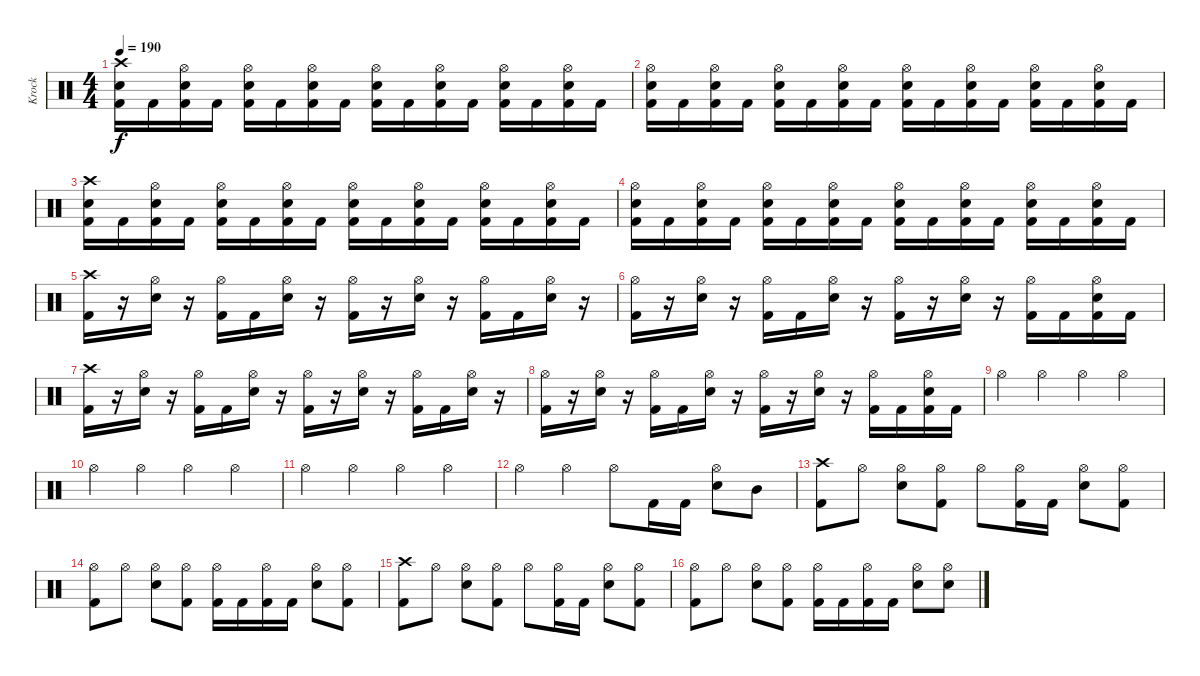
\track ("Krock" "Krock") {instrument percussion}
\staff {score}
\articulation defaults
\ts (4 4)
\tempo 190
\clef neutral
\ks c
("Crash high (hit)" "Electric Snare (hit)" "Kick (hit) 2").16{dy f} "Kick (hit) 2".16 ("Hi-Hat (open)" "Electric Snare (hit)" "Kick (hit) 2").16 "Kick (hit) 2".16 ("Hi-Hat (open)" "Electric Snare (hit)" "Kick (hit) 2").16 "Kick (hit) 2".16 ("Hi-Hat (open)" "Electric Snare (hit)" "Kick (hit) 2").16 "Kick (hit) 2".16 ("Hi-Hat (open)" "Electric Snare (hit)" "Kick (hit) 2").16 "Kick (hit) 2".16 ("Hi-Hat (open)" "Electric Snare (hit)" "Kick (hit) 2").16 "Kick (hit) 2".16 ("Hi-Hat (open)" "Electric Snare (hit)" "Kick (hit) 2").16 "Kick (hit) 2".16 ("Hi-Hat (open)" "Electric Snare (hit)" "Kick (hit) 2").16 "Kick (hit) 2".16 |
("Hi-Hat (open)" "Electric Snare (hit)" "Kick (hit) 2").16 "Kick (hit) 2".16 ("Hi-Hat (open)" "Electric Snare (hit)" "Kick (hit) 2").16 "Kick (hit) 2".16 ("Hi-Hat (open)" "Electric Snare (hit)" "Kick (hit) 2").16 "Kick (hit) 2".16 ("Hi-Hat (open)" "Electric Snare (hit)" "Kick (hit) 2").16 "Kick (hit) 2".16 ("Hi-Hat (open)" "Electric Snare (hit)" "Kick (hit) 2").16 "Kick (hit) 2".16 ("Hi-Hat (open)" "Electric Snare (hit)" "Kick (hit) 2").16 "Kick (hit) 2".16 ("Hi-Hat (open)" "Electric Snare (hit)" "Kick (hit) 2").16 "Kick (hit) 2".16 ("Hi-Hat (open)" "Electric Snare (hit)" "Kick (hit) 2").16 "Kick (hit) 2".16 |
("Crash high (hit)" "Electric Snare (hit)" "Kick (hit) 2").16 "Kick (hit) 2".16 ("Hi-Hat (open)" "Electric Snare (hit)" "Kick (hit) 2").16 "Kick (hit) 2".16 ("Hi-Hat (open)" "Electric Snare (hit)" "Kick (hit) 2").16 "Kick (hit) 2".16 ("Hi-Hat (open)" "Electric Snare (hit)" "Kick (hit) 2").16 "Kick (hit) 2".16 ("Hi-Hat (open)" "Electric Snare (hit)" "Kick (hit) 2").16 "Kick (hit) 2".16 ("Hi-Hat (open)" "Electric Snare (hit)" "Kick (hit) 2").16 "Kick (hit) 2".16 ("Hi-Hat (open)" "Electric Snare (hit)" "Kick (hit) 2").16 "Kick (hit) 2".16 ("Hi-Hat (open)" "Electric Snare (hit)" "Kick (hit) 2").16 "Kick (hit) 2".16 |
("Hi-Hat (open)" "Electric Snare (hit)" "Kick (hit) 2").16 "Kick (hit) 2".16 ("Hi-Hat (open)" "Electric Snare (hit)" "Kick (hit) 2").16 "Kick (hit) 2".16 ("Hi-Hat (open)" "Electric Snare (hit)" "Kick (hit) 2").16 "Kick (hit) 2".16 ("Hi-Hat (open)" "Electric Snare (hit)" "Kick (hit) 2").16 "Kick (hit) 2".16 ("Hi-Hat (open)" "Electric Snare (hit)" "Kick (hit) 2").16 "Kick (hit) 2".16 ("Hi-Hat (open)" "Electric Snare (hit)" "Kick (hit) 2").16 "Kick (hit) 2".16 ("Hi-Hat (open)" "Electric Snare (hit)" "Kick (hit) 2").16 "Kick (hit) 2".16 ("Hi-Hat (open)" "Electric Snare (hit)" "Kick (hit) 2").16 "Kick (hit) 2".16 |
("Crash high (hit)" "Kick (hit) 2").16 r.16 ("Hi-Hat (open)" "Electric Snare (hit)").16 r.16 ("Hi-Hat (open)" "Kick (hit) 2").16 "Kick (hit) 2".16 ("Hi-Hat (open)" "Electric Snare (hit)").16 r.16 ("Hi-Hat (open)" "Kick (hit) 2").16 r.16 ("Hi-Hat (open)" "Electric Snare (hit)").16 r.16 ("Hi-Hat (open)" "Kick (hit) 2").16 "Kick (hit) 2".16 ("Hi-Hat (open)" "Electric Snare (hit)").16 r.16 |
("Hi-Hat (open)" "Kick (hit) 2").16 r.16 ("Hi-Hat (open)" "Electric Snare (hit)").16 r.16 ("Hi-Hat (open)" "Kick (hit) 2").16 "Kick (hit) 2".16 ("Hi-Hat (open)" "Electric Snare (hit)").16 r.16 ("Hi-Hat (open)" "Kick (hit) 2").16 r.16 ("Hi-Hat (open)" "Electric Snare (hit)").16 r.16 ("Hi-Hat (open)" "Kick (hit) 2").16 "Kick (hit) 2".16 ("Hi-Hat (open)" "Electric Snare (hit)" "Kick (hit) 2").16 "Kick (hit) 2".16 |
("Crash high (hit)" "Kick (hit) 2").16 r.16 ("Hi-Hat (open)" "Electric Snare (hit)").16 r.16 ("Hi-Hat (open)" "Kick (hit) 2").16 "Kick (hit) 2".16 ("Hi-Hat (open)" "Electric Snare (hit)").16 r.16 ("Hi-Hat (open)" "Kick (hit) 2").16 r.16 ("Hi-Hat (open)" "Electric Snare (hit)").16 r.16 ("Hi-Hat (open)" "Kick (hit) 2").16 "Kick (hit) 2".16 ("Hi-Hat (open)" "Electric Snare (hit)").16 r.16 |
("Hi-Hat (open)" "Kick (hit) 2").16 r.16 ("Hi-Hat (open)" "Electric Snare (hit)").16 r.16 ("Hi-Hat (open)" "Kick (hit) 2").16 "Kick (hit) 2".16 ("Hi-Hat (open)" "Electric Snare (hit)").16 r.16 ("Hi-Hat (open)" "Kick (hit) 2").16 r.16 ("Hi-Hat (open)" "Electric Snare (hit)").16 r.16 ("Hi-Hat (open)" "Kick (hit) 2").16 "Kick (hit) 2".16 ("Hi-Hat (open)" "Electric Snare (hit)" "Kick (hit) 2").16 "Kick (hit) 2".16 |
"Hi-Hat (open)".4 "Hi-Hat (open)".4 "Hi-Hat (open)".4 "Hi-Hat (open)".4 |
"Hi-Hat (open)".4 "Hi-Hat (open)".4 "Hi-Hat (open)".4 "Hi-Hat (open)".4 |
"Hi-Hat (open)".4 "Hi-Hat (open)".4 "Hi-Hat (open)".4 "Hi-Hat (open)".4 |
"Hi-Hat (open)".4 "Hi-Hat (open)".4 "Hi-Hat (open)".8 "Kick (hit) 2".16 "Kick (hit) 2".16 ("Hi-Hat (open)" "Electric Snare (hit)").8 "Mid Tom (hit)".8 |
("Crash high (hit)" "Kick (hit) 2").8 "Hi-Hat (open)".8 ("Hi-Hat (open)" "Electric Snare (hit)").8 ("Hi-Hat (open)" "Kick (hit) 2").8 "Hi-Hat (open)".8 ("Hi-Hat (open)" "Kick (hit) 2").16 "Kick (hit) 2".16 ("Hi-Hat (open)" "Electric Snare (hit)").8 ("Hi-Hat (open)" "Kick (hit) 2").8 |
("Hi-Hat (open)" "Kick (hit) 2").8 "Hi-Hat (open)".8 ("Hi-Hat (open)" "Electric Snare (hit)").8 ("Hi-Hat (open)" "Kick (hit) 2").8 ("Hi-Hat (open)" "Kick (hit) 2").16 "Kick (hit) 2".16 ("Hi-Hat (open)" "Kick (hit) 2").16 "Kick (hit) 2".16 ("Hi-Hat (open)" "Electric Snare (hit)").8 ("Hi-Hat (open)" "Kick (hit) 2").8 |
("Crash high (hit)" "Kick (hit) 2").8 "Hi-Hat (open)".8 ("Hi-Hat (open)" "Electric Snare (hit)").8 ("Hi-Hat (open)" "Kick (hit) 2").8 "Hi-Hat (open)".8 ("Hi-Hat (open)" "Kick (hit) 2").16 "Kick (hit) 2".16 ("Hi-Hat (open)" "Electric Snare (hit)").8 ("Hi-Hat (open)" "Kick (hit) 2").8 |
("Hi-Hat (open)" "Kick (hit) 2").8 "Hi-Hat (open)".8 ("Hi-Hat (open)" "Electric Snare (hit)").8 ("Hi-Hat (open)" "Kick (hit) 2").8 ("Hi-Hat (open)" "Kick (hit) 2").16 "Kick (hit) 2".16 ("Hi-Hat (open)" "Kick (hit) 2").16 "Kick (hit) 2".16 ("Hi-Hat (open)" "Electric Snare (hit)").8 ("Hi-Hat (open)" "Electric Snare (hit)").8
